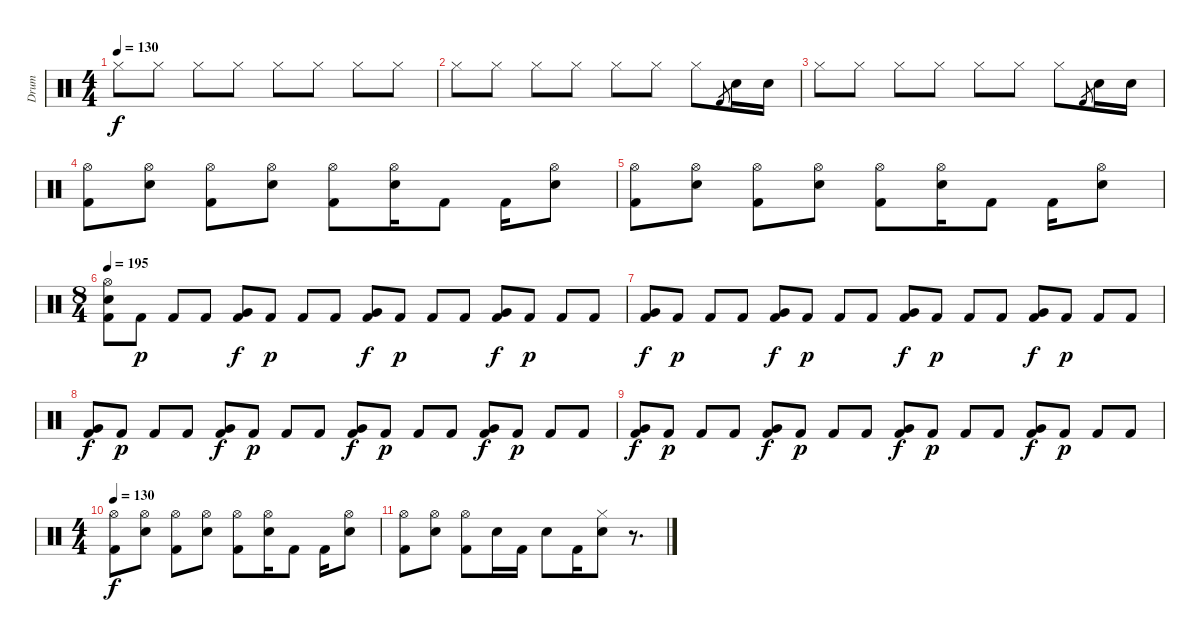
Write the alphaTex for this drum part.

\track ("Drum" "Drum") {instrument percussion}
\staff {score}
\articulation defaults
\ts (4 4)
\tempo 130
\clef neutral
\ks c "Hi-Hat (closed)".8{dy f} "Hi-Hat (closed)".8 "Hi-Hat (closed)".8 "Hi-Hat (closed)".8 "Hi-Hat (closed)".8 "Hi-Hat (closed)".8 "Hi-Hat (closed)".8 "Hi-Hat (closed)".8
|
"Hi-Hat (closed)".8 "Hi-Hat (closed)".8 "Hi-Hat (closed)".8 "Hi-Hat (closed)".8 "Hi-Hat (closed)".8 "Hi-Hat (closed)".8 "Hi-Hat (closed)".8 "Kick (hit) 2".8{gr} "Electric Snare (hit)".16 "Electric Snare (hit)".16 |
"Hi-Hat (closed)".8 "Hi-Hat (closed)".8 "Hi-Hat (closed)".8 "Hi-Hat (closed)".8 "Hi-Hat (closed)".8 "Hi-Hat (closed)".8 "Hi-Hat (closed)".8 "Kick (hit) 2".8{gr} "Electric Snare (hit)".16 "Electric Snare (hit)".16 |
("Hi-Hat (open)" "Kick (hit) 2").8 ("Hi-Hat (open)" "Electric Snare (hit)").8 ("Hi-Hat (open)" "Kick (hit) 2").8 ("Hi-Hat (open)" "Electric Snare (hit)").8 ("Hi-Hat (open)" "Kick (hit) 2").8 ("Hi-Hat (open)" "Electric Snare (hit)").16 "Kick (hit) 2".8 "Kick (hit) 2".16 ("Hi-Hat (open)" "Electric Snare (hit)").8 |
("Hi-Hat (open)" "Kick (hit) 2").8 ("Hi-Hat (open)" "Electric Snare (hit)").8 ("Hi-Hat (open)" "Kick (hit) 2").8 ("Hi-Hat (open)" "Electric Snare (hit)").8 ("Hi-Hat (open)" "Kick (hit) 2").8 ("Hi-Hat (open)" "Electric Snare (hit)").16 "Kick (hit) 2".8 "Kick (hit) 2".16 ("Hi-Hat (open)" "Electric Snare (hit)").8 |
\ts (8 4)
\tempo 195
("Hi-Hat (open)" "Electric Snare (hit)" "Kick (hit) 2").8 "Kick (hit) 2".8{dy p} "Kick (hit) 2".8 "Kick (hit) 2".8 ("Very Low Tom (hit)" "Kick (hit) 2").8{dy f} "Kick (hit) 2".8{dy p} "Kick (hit) 2".8 "Kick (hit) 2".8 ("Very Low Tom (hit)" "Kick (hit) 2").8{dy f} "Kick (hit) 2".8{dy p} "Kick (hit) 2".8 "Kick (hit) 2".8 ("Very Low Tom (hit)" "Kick (hit) 2").8{dy f} "Kick (hit) 2".8{dy p} "Kick (hit) 2".8 "Kick (hit) 2".8 |
("Very Low Tom (hit)" "Kick (hit) 2").8{dy f} "Kick (hit) 2".8{dy p} "Kick (hit) 2".8 "Kick (hit) 2".8 ("Very Low Tom (hit)" "Kick (hit) 2").8{dy f} "Kick (hit) 2".8{dy p} "Kick (hit) 2".8 "Kick (hit) 2".8 ("Very Low Tom (hit)" "Kick (hit) 2").8{dy f} "Kick (hit) 2".8{dy p} "Kick (hit) 2".8 "Kick (hit) 2".8 ("Very Low Tom (hit)" "Kick (hit) 2").8{dy f} "Kick (hit) 2".8{dy p} "Kick (hit) 2".8 "Kick (hit) 2".8 |
("Very Low Tom (hit)" "Kick (hit) 2").8{dy f} "Kick (hit) 2".8{dy p} "Kick (hit) 2".8 "Kick (hit) 2".8 ("Very Low Tom (hit)" "Kick (hit) 2").8{dy f} "Kick (hit) 2".8{dy p} "Kick (hit) 2".8 "Kick (hit) 2".8 ("Very Low Tom (hit)" "Kick (hit) 2").8{dy f} "Kick (hit) 2".8{dy p} "Kick (hit) 2".8 "Kick (hit) 2".8 ("Very Low Tom (hit)" "Kick (hit) 2").8{dy f} "Kick (hit) 2".8{dy p} "Kick (hit) 2".8 "Kick (hit) 2".8 |
("Very Low Tom (hit)" "Kick (hit) 2").8{dy f} "Kick (hit) 2".8{dy p} "Kick (hit) 2".8 "Kick (hit) 2".8 ("Very Low Tom (hit)" "Kick (hit) 2").8{dy f} "Kick (hit) 2".8{dy p} "Kick (hit) 2".8 "Kick (hit) 2".8 ("Very Low Tom (hit)" "Kick (hit) 2").8{dy f} "Kick (hit) 2".8{dy p} "Kick (hit) 2".8 "Kick (hit) 2".8 ("Very Low Tom (hit)" "Kick (hit) 2").8{dy f} "Kick (hit) 2".8{dy p} "Kick (hit) 2".8 "Kick (hit) 2".8 |
\ts (4 4)
\tempo 130
("Hi-Hat (open)" "Kick (hit) 2").8{dy f} ("Hi-Hat (open)" "Electric Snare (hit)").8 ("Hi-Hat (open)" "Kick (hit) 2").8 ("Hi-Hat (open)" "Electric Snare (hit)").8 ("Hi-Hat (open)" "Kick (hit) 2").8 ("Hi-Hat (open)" "Electric Snare (hit)").16 "Kick (hit) 2".8 "Kick (hit) 2".16 ("Hi-Hat (open)" "Electric Snare (hit)").8 |
("Hi-Hat (open)" "Kick (hit) 2").8 ("Hi-Hat (open)" "Electric Snare (hit)").8 ("Hi-Hat (open)" "Kick (hit) 2").8 "Electric Snare (hit)".16 "Kick (hit) 2".16 "Electric Snare (hit)".8 "Kick (hit) 2".16 ("Hi-Hat (closed)" "Electric Snare (hit)").8 r.8{d}
